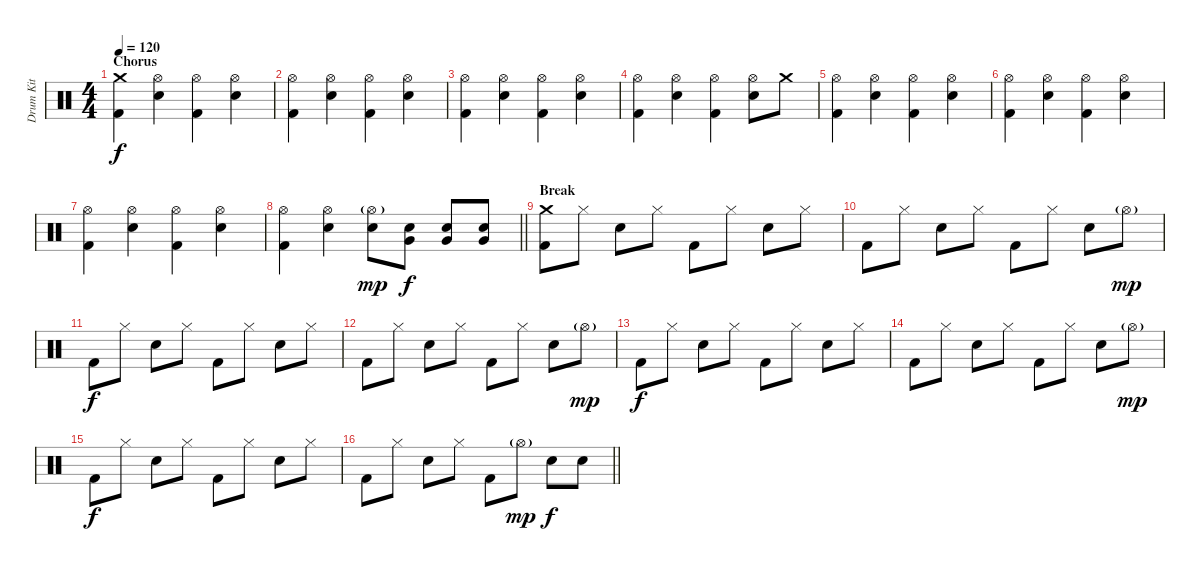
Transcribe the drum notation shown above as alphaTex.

\track ("Drum Kit" "Drum Kit") {instrument percussion}
\staff {score}
\articulation defaults
\ts (4 4)
\section ("" "Chorus")
\tempo 120
\clef neutral
\ks c
("Crash medium (hit)" "Kick (hit) 2").4{dy f} ("Hi-Hat (open)" "Electric Snare (hit)").4 ("Hi-Hat (open)" "Kick (hit) 2").4 ("Hi-Hat (open)" "Electric Snare (hit)").4 |
("Hi-Hat (open)" "Kick (hit) 2").4 ("Hi-Hat (open)" "Electric Snare (hit)").4 ("Hi-Hat (open)" "Kick (hit) 2").4 ("Hi-Hat (open)" "Electric Snare (hit)").4 |
("Hi-Hat (open)" "Kick (hit) 2").4 ("Hi-Hat (open)" "Electric Snare (hit)").4 ("Hi-Hat (open)" "Kick (hit) 2").4 ("Hi-Hat (open)" "Electric Snare (hit)").4 |
("Hi-Hat (open)" "Kick (hit) 2").4 ("Hi-Hat (open)" "Electric Snare (hit)").4 ("Hi-Hat (open)" "Kick (hit) 2").4 ("Hi-Hat (open)" "Electric Snare (hit)").8 "Crash medium (hit)".8 |
("Hi-Hat (open)" "Kick (hit) 2").4 ("Hi-Hat (open)" "Electric Snare (hit)").4 ("Hi-Hat (open)" "Kick (hit) 2").4 ("Hi-Hat (open)" "Electric Snare (hit)").4 |
("Hi-Hat (open)" "Kick (hit) 2").4 ("Hi-Hat (open)" "Electric Snare (hit)").4 ("Hi-Hat (open)" "Kick (hit) 2").4 ("Hi-Hat (open)" "Electric Snare (hit)").4 |
("Hi-Hat (open)" "Kick (hit) 2").4 ("Hi-Hat (open)" "Electric Snare (hit)").4 ("Hi-Hat (open)" "Kick (hit) 2").4 ("Hi-Hat (open)" "Electric Snare (hit)").4 |
\barLineRight lightlight
("Hi-Hat (open)" "Kick (hit) 2").4 ("Hi-Hat (open)" "Electric Snare (hit)").4 ("Hi-Hat (open)"{g} "Electric Snare (hit)").8{dy mp} ("Electric Snare (hit)" "Very Low Tom (hit)").8{dy f} ("Electric Snare (hit)" "Very Low Tom (hit)").8 ("Electric Snare (hit)" "Very Low Tom (hit)").8 |
\section ("" "Break")
("Crash medium (hit)" "Kick (hit) 2").8 "Hi-Hat (closed)".8 "Electric Snare (hit)".8 "Hi-Hat (closed)".8 "Kick (hit) 2".8 "Hi-Hat (closed)".8 "Electric Snare (hit)".8 "Hi-Hat (closed)".8 |
"Kick (hit) 2".8 "Hi-Hat (closed)".8 "Electric Snare (hit)".8 "Hi-Hat (closed)".8 "Kick (hit) 2".8 "Hi-Hat (closed)".8 "Electric Snare (hit)".8 "Hi-Hat (open)"{g}.8{dy mp} |
"Kick (hit) 2".8{dy f} "Hi-Hat (closed)".8 "Electric Snare (hit)".8 "Hi-Hat (closed)".8 "Kick (hit) 2".8 "Hi-Hat (closed)".8 "Electric Snare (hit)".8 "Hi-Hat (closed)".8 |
"Kick (hit) 2".8 "Hi-Hat (closed)".8 "Electric Snare (hit)".8 "Hi-Hat (closed)".8 "Kick (hit) 2".8 "Hi-Hat (closed)".8 "Electric Snare (hit)".8 "Hi-Hat (open)"{g}.8{dy mp} |
"Kick (hit) 2".8{dy f} "Hi-Hat (closed)".8 "Electric Snare (hit)".8 "Hi-Hat (closed)".8 "Kick (hit) 2".8 "Hi-Hat (closed)".8 "Electric Snare (hit)".8 "Hi-Hat (closed)".8 |
"Kick (hit) 2".8 "Hi-Hat (closed)".8 "Electric Snare (hit)".8 "Hi-Hat (closed)".8 "Kick (hit) 2".8 "Hi-Hat (closed)".8 "Electric Snare (hit)".8 "Hi-Hat (open)"{g}.8{dy mp} |
"Kick (hit) 2".8{dy f} "Hi-Hat (closed)".8 "Electric Snare (hit)".8 "Hi-Hat (closed)".8 "Kick (hit) 2".8 "Hi-Hat (closed)".8 "Electric Snare (hit)".8 "Hi-Hat (closed)".8 |
\barLineRight lightlight "Kick (hit) 2".8 "Hi-Hat (closed)".8 "Electric Snare (hit)".8 "Hi-Hat (closed)".8 "Kick (hit) 2".8 "Hi-Hat (open)"{g}.8{dy mp} "Electric Snare (hit)".8{dy f} "Electric Snare (hit)".8
